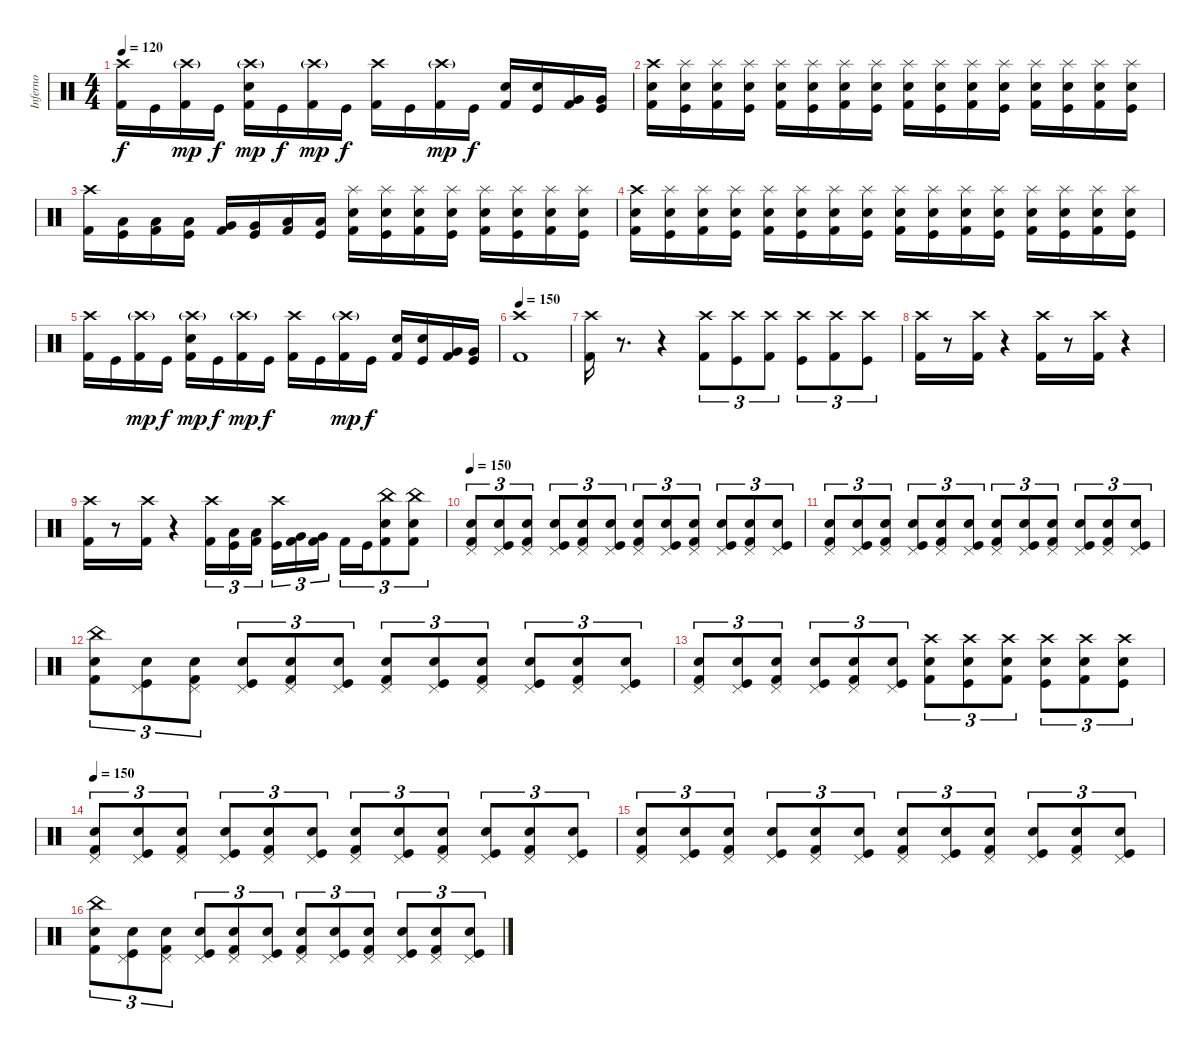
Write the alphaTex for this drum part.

\track ("Inferno" "Inferno") {instrument percussion}
\staff {score}
\articulation defaults
\ts (4 4)
\tempo 120
\clef neutral
\ks c
("Crash high (hit)" "Kick (hit) 2").16{dy f} "Kick (hit)".16 ("Crash high (hit)"{g} "Kick (hit) 2").16{dy mp} "Kick (hit)".16{dy f} ("Crash high (hit)"{g} "Electric Snare (hit)" "Kick (hit) 2").16{dy mp} "Kick (hit)".16{dy f} ("Crash high (hit)"{g} "Kick (hit) 2").16{dy mp} "Kick (hit)".16{dy f} ("Crash high (hit)" "Kick (hit) 2").16 "Kick (hit)".16 ("Crash high (hit)"{g} "Kick (hit) 2").16{dy mp} "Kick (hit)".16{dy f} ("Electric Snare (hit)" "Kick (hit) 2").16 ("Electric Snare (hit)" "Kick (hit)").16 ("Very Low Tom (hit)" "Kick (hit) 2").16 ("Very Low Tom (hit)" "Kick (hit)").16 |
("Crash high (hit)" "Electric Snare (hit)" "Kick (hit) 2").16 ("Splash (hit)" "Electric Snare (hit)" "Kick (hit)").16 ("Splash (hit)" "Electric Snare (hit)" "Kick (hit) 2").16 ("Splash (hit)" "Electric Snare (hit)" "Kick (hit)").16 ("Splash (hit)" "Electric Snare (hit)" "Kick (hit) 2").16 ("Splash (hit)" "Electric Snare (hit)" "Kick (hit)").16 ("Splash (hit)" "Electric Snare (hit)" "Kick (hit) 2").16 ("Splash (hit)" "Electric Snare (hit)" "Kick (hit)").16 ("Splash (hit)" "Electric Snare (hit)" "Kick (hit) 2").16 ("Splash (hit)" "Electric Snare (hit)" "Kick (hit)").16 ("Splash (hit)" "Electric Snare (hit)" "Kick (hit) 2").16 ("Splash (hit)" "Electric Snare (hit)" "Kick (hit)").16 ("Splash (hit)" "Electric Snare (hit)" "Kick (hit) 2").16 ("Splash (hit)" "Electric Snare (hit)" "Kick (hit)").16 ("Splash (hit)" "Electric Snare (hit)" "Kick (hit) 2").16 ("Splash (hit)" "Electric Snare (hit)" "Kick (hit)").16 |
("Crash high (hit)" "Kick (hit) 2").16 ("Low Tom (hit)" "Kick (hit)").16 ("Low Tom (hit)" "Kick (hit) 2").16 ("Low Tom (hit)" "Kick (hit)").16 ("Very Low Tom (hit)" "Kick (hit) 2").16 ("Very Low Tom (hit)" "Kick (hit)").16 ("Low Floor Tom (hit)" "Kick (hit) 2").16 ("Low Floor Tom (hit)" "Kick (hit)").16 ("Splash (hit)" "Electric Snare (hit)" "Kick (hit) 2").16 ("Splash (hit)" "Electric Snare (hit)" "Kick (hit)").16 ("Splash (hit)" "Electric Snare (hit)" "Kick (hit) 2").16 ("Splash (hit)" "Electric Snare (hit)" "Kick (hit)").16 ("Splash (hit)" "Electric Snare (hit)" "Kick (hit) 2").16 ("Splash (hit)" "Electric Snare (hit)" "Kick (hit)").16 ("Splash (hit)" "Electric Snare (hit)" "Kick (hit) 2").16 ("Splash (hit)" "Electric Snare (hit)" "Kick (hit)").16 |
("Crash high (hit)" "Electric Snare (hit)" "Kick (hit) 2").16 ("Splash (hit)" "Electric Snare (hit)" "Kick (hit)").16 ("Splash (hit)" "Electric Snare (hit)" "Kick (hit) 2").16 ("Splash (hit)" "Electric Snare (hit)" "Kick (hit)").16 ("Splash (hit)" "Electric Snare (hit)" "Kick (hit) 2").16 ("Splash (hit)" "Electric Snare (hit)" "Kick (hit)").16 ("Splash (hit)" "Electric Snare (hit)" "Kick (hit) 2").16 ("Splash (hit)" "Electric Snare (hit)" "Kick (hit)").16 ("Splash (hit)" "Electric Snare (hit)" "Kick (hit) 2").16 ("Splash (hit)" "Electric Snare (hit)" "Kick (hit)").16 ("Splash (hit)" "Electric Snare (hit)" "Kick (hit) 2").16 ("Splash (hit)" "Electric Snare (hit)" "Kick (hit)").16 ("Splash (hit)" "Electric Snare (hit)" "Kick (hit) 2").16 ("Splash (hit)" "Electric Snare (hit)" "Kick (hit)").16 ("Splash (hit)" "Electric Snare (hit)" "Kick (hit) 2").16 ("Splash (hit)" "Electric Snare (hit)" "Kick (hit)").16 |
("Crash high (hit)" "Kick (hit) 2").16 "Kick (hit)".16 ("Crash high (hit)"{g} "Kick (hit) 2").16{dy mp} "Kick (hit)".16{dy f} ("Crash high (hit)"{g} "Electric Snare (hit)" "Kick (hit) 2").16{dy mp} "Kick (hit)".16{dy f} ("Crash high (hit)"{g} "Kick (hit) 2").16{dy mp} "Kick (hit)".16{dy f} ("Crash high (hit)" "Kick (hit) 2").16 "Kick (hit)".16 ("Crash high (hit)"{g} "Kick (hit) 2").16{dy mp} "Kick (hit)".16{dy f} ("Electric Snare (hit)" "Kick (hit) 2").16 ("Electric Snare (hit)" "Kick (hit)").16 ("Very Low Tom (hit)" "Kick (hit) 2").16 ("Very Low Tom (hit)" "Kick (hit)").16 |
\tempo 150
("Crash high (hit)" "Kick (hit) 2").1 |
("Crash high (hit)" "Kick (hit) 2").16 r.8{d} r.4 ("Crash high (hit)" "Kick (hit) 2").8{tu (3 2)} ("Crash high (hit)" "Kick (hit)").8{tu (3 2)} ("Crash high (hit)" "Kick (hit) 2").8{tu (3 2)} ("Crash high (hit)" "Kick (hit)").8{tu (3 2)} ("Crash high (hit)" "Kick (hit) 2").8{tu (3 2)} ("Crash high (hit)" "Kick (hit)").8{tu (3 2)} |
("Crash high (hit)" "Kick (hit) 2").16 r.8 ("Crash high (hit)" "Kick (hit) 2").16 r.4 ("Crash high (hit)" "Kick (hit) 2").16 r.8 ("Crash high (hit)" "Kick (hit) 2").16 r.4 |
("Crash high (hit)" "Kick (hit) 2").16 r.8 ("Crash high (hit)" "Kick (hit) 2").16 r.4 ("Crash high (hit)" "Kick (hit) 2").16{tu (3 2)} ("Low Tom (hit)" "Kick (hit)").16{tu (3 2)} ("Low Tom (hit)" "Kick (hit) 2").16{tu (3 2)} ("Crash high (hit)" "Kick (hit)").16{tu (3 2)} ("Very Low Tom (hit)" "Kick (hit) 2").16{tu (3 2)} ("Very Low Tom (hit)" "Kick (hit) 2").16{tu (3 2)} "Kick (hit) 2".16{tu (3 2)} "Kick (hit)".16{tu (3 2)} ("China (hit)" "Electric Snare (hit)" "Kick (hit) 2").8{tu (3 2)} ("China (hit)" "Electric Snare (hit)" "Kick (hit) 2").8{tu (3 2)} |
\tempo 150
("Pedal Hi-Hat (hit)" "Electric Snare (hit)" "Kick (hit) 2").8{tu (3 2)} ("Pedal Hi-Hat (hit)" "Electric Snare (hit)" "Kick (hit)").8{tu (3 2)} ("Pedal Hi-Hat (hit)" "Electric Snare (hit)" "Kick (hit) 2").8{tu (3 2)} ("Pedal Hi-Hat (hit)" "Electric Snare (hit)" "Kick (hit)").8{tu (3 2)} ("Pedal Hi-Hat (hit)" "Electric Snare (hit)" "Kick (hit) 2").8{tu (3 2)} ("Pedal Hi-Hat (hit)" "Electric Snare (hit)" "Kick (hit)").8{tu (3 2)} ("Pedal Hi-Hat (hit)" "Electric Snare (hit)" "Kick (hit) 2").8{tu (3 2)} ("Pedal Hi-Hat (hit)" "Electric Snare (hit)" "Kick (hit)").8{tu (3 2)} ("Pedal Hi-Hat (hit)" "Electric Snare (hit)" "Kick (hit) 2").8{tu (3 2)} ("Pedal Hi-Hat (hit)" "Electric Snare (hit)" "Kick (hit)").8{tu (3 2)} ("Pedal Hi-Hat (hit)" "Electric Snare (hit)" "Kick (hit) 2").8{tu (3 2)} ("Pedal Hi-Hat (hit)" "Electric Snare (hit)" "Kick (hit)").8{tu (3 2)} |
("Pedal Hi-Hat (hit)" "Electric Snare (hit)" "Kick (hit) 2").8{tu (3 2)} ("Pedal Hi-Hat (hit)" "Electric Snare (hit)" "Kick (hit)").8{tu (3 2)} ("Pedal Hi-Hat (hit)" "Electric Snare (hit)" "Kick (hit) 2").8{tu (3 2)} ("Pedal Hi-Hat (hit)" "Electric Snare (hit)" "Kick (hit)").8{tu (3 2)} ("Pedal Hi-Hat (hit)" "Electric Snare (hit)" "Kick (hit) 2").8{tu (3 2)} ("Pedal Hi-Hat (hit)" "Electric Snare (hit)" "Kick (hit)").8{tu (3 2)} ("Pedal Hi-Hat (hit)" "Electric Snare (hit)" "Kick (hit) 2").8{tu (3 2)} ("Pedal Hi-Hat (hit)" "Electric Snare (hit)" "Kick (hit)").8{tu (3 2)} ("Pedal Hi-Hat (hit)" "Electric Snare (hit)" "Kick (hit) 2").8{tu (3 2)} ("Pedal Hi-Hat (hit)" "Electric Snare (hit)" "Kick (hit)").8{tu (3 2)} ("Pedal Hi-Hat (hit)" "Electric Snare (hit)" "Kick (hit) 2").8{tu (3 2)} ("Pedal Hi-Hat (hit)" "Electric Snare (hit)" "Kick (hit)").8{tu (3 2)} |
("China (hit)" "Electric Snare (hit)" "Kick (hit) 2").8{tu (3 2)} ("Pedal Hi-Hat (hit)" "Electric Snare (hit)" "Kick (hit)").8{tu (3 2)} ("Pedal Hi-Hat (hit)" "Electric Snare (hit)" "Kick (hit) 2").8{tu (3 2)} ("Pedal Hi-Hat (hit)" "Electric Snare (hit)" "Kick (hit)").8{tu (3 2)} ("Pedal Hi-Hat (hit)" "Electric Snare (hit)" "Kick (hit) 2").8{tu (3 2)} ("Pedal Hi-Hat (hit)" "Electric Snare (hit)" "Kick (hit)").8{tu (3 2)} ("Pedal Hi-Hat (hit)" "Electric Snare (hit)" "Kick (hit) 2").8{tu (3 2)} ("Pedal Hi-Hat (hit)" "Electric Snare (hit)" "Kick (hit)").8{tu (3 2)} ("Pedal Hi-Hat (hit)" "Electric Snare (hit)" "Kick (hit) 2").8{tu (3 2)} ("Pedal Hi-Hat (hit)" "Electric Snare (hit)" "Kick (hit)").8{tu (3 2)} ("Pedal Hi-Hat (hit)" "Electric Snare (hit)" "Kick (hit) 2").8{tu (3 2)} ("Pedal Hi-Hat (hit)" "Electric Snare (hit)" "Kick (hit)").8{tu (3 2)} |
("Pedal Hi-Hat (hit)" "Electric Snare (hit)" "Kick (hit) 2").8{tu (3 2)} ("Pedal Hi-Hat (hit)" "Electric Snare (hit)" "Kick (hit)").8{tu (3 2)} ("Pedal Hi-Hat (hit)" "Electric Snare (hit)" "Kick (hit) 2").8{tu (3 2)} ("Pedal Hi-Hat (hit)" "Electric Snare (hit)" "Kick (hit)").8{tu (3 2)} ("Pedal Hi-Hat (hit)" "Electric Snare (hit)" "Kick (hit) 2").8{tu (3 2)} ("Pedal Hi-Hat (hit)" "Electric Snare (hit)" "Kick (hit)").8{tu (3 2)} ("Crash high (hit)" "Electric Snare (hit)" "Kick (hit) 2").8{tu (3 2)} ("Crash high (hit)" "Electric Snare (hit)" "Kick (hit)").8{tu (3 2)} ("Crash high (hit)" "Electric Snare (hit)" "Kick (hit) 2").8{tu (3 2)} ("Crash high (hit)" "Electric Snare (hit)" "Kick (hit)").8{tu (3 2)} ("Crash high (hit)" "Electric Snare (hit)" "Kick (hit) 2").8{tu (3 2)} ("Crash high (hit)" "Electric Snare (hit)" "Kick (hit)").8{tu (3 2)} |
\tempo 150
("Pedal Hi-Hat (hit)" "Electric Snare (hit)" "Kick (hit) 2").8{tu (3 2)} ("Pedal Hi-Hat (hit)" "Electric Snare (hit)" "Kick (hit)").8{tu (3 2)} ("Pedal Hi-Hat (hit)" "Electric Snare (hit)" "Kick (hit) 2").8{tu (3 2)} ("Pedal Hi-Hat (hit)" "Electric Snare (hit)" "Kick (hit)").8{tu (3 2)} ("Pedal Hi-Hat (hit)" "Electric Snare (hit)" "Kick (hit) 2").8{tu (3 2)} ("Pedal Hi-Hat (hit)" "Electric Snare (hit)" "Kick (hit)").8{tu (3 2)} ("Pedal Hi-Hat (hit)" "Electric Snare (hit)" "Kick (hit) 2").8{tu (3 2)} ("Pedal Hi-Hat (hit)" "Electric Snare (hit)" "Kick (hit)").8{tu (3 2)} ("Pedal Hi-Hat (hit)" "Electric Snare (hit)" "Kick (hit) 2").8{tu (3 2)} ("Pedal Hi-Hat (hit)" "Electric Snare (hit)" "Kick (hit)").8{tu (3 2)} ("Pedal Hi-Hat (hit)" "Electric Snare (hit)" "Kick (hit) 2").8{tu (3 2)} ("Pedal Hi-Hat (hit)" "Electric Snare (hit)" "Kick (hit)").8{tu (3 2)} |
("Pedal Hi-Hat (hit)" "Electric Snare (hit)" "Kick (hit) 2").8{tu (3 2)} ("Pedal Hi-Hat (hit)" "Electric Snare (hit)" "Kick (hit)").8{tu (3 2)} ("Pedal Hi-Hat (hit)" "Electric Snare (hit)" "Kick (hit) 2").8{tu (3 2)} ("Pedal Hi-Hat (hit)" "Electric Snare (hit)" "Kick (hit)").8{tu (3 2)} ("Pedal Hi-Hat (hit)" "Electric Snare (hit)" "Kick (hit) 2").8{tu (3 2)} ("Pedal Hi-Hat (hit)" "Electric Snare (hit)" "Kick (hit)").8{tu (3 2)} ("Pedal Hi-Hat (hit)" "Electric Snare (hit)" "Kick (hit) 2").8{tu (3 2)} ("Pedal Hi-Hat (hit)" "Electric Snare (hit)" "Kick (hit)").8{tu (3 2)} ("Pedal Hi-Hat (hit)" "Electric Snare (hit)" "Kick (hit) 2").8{tu (3 2)} ("Pedal Hi-Hat (hit)" "Electric Snare (hit)" "Kick (hit)").8{tu (3 2)} ("Pedal Hi-Hat (hit)" "Electric Snare (hit)" "Kick (hit) 2").8{tu (3 2)} ("Pedal Hi-Hat (hit)" "Electric Snare (hit)" "Kick (hit)").8{tu (3 2)} |
("China (hit)" "Electric Snare (hit)" "Kick (hit) 2").8{tu (3 2)} ("Pedal Hi-Hat (hit)" "Electric Snare (hit)" "Kick (hit)").8{tu (3 2)} ("Pedal Hi-Hat (hit)" "Electric Snare (hit)" "Kick (hit) 2").8{tu (3 2)} ("Pedal Hi-Hat (hit)" "Electric Snare (hit)" "Kick (hit)").8{tu (3 2)} ("Pedal Hi-Hat (hit)" "Electric Snare (hit)" "Kick (hit) 2").8{tu (3 2)} ("Pedal Hi-Hat (hit)" "Electric Snare (hit)" "Kick (hit)").8{tu (3 2)} ("Pedal Hi-Hat (hit)" "Electric Snare (hit)" "Kick (hit) 2").8{tu (3 2)} ("Pedal Hi-Hat (hit)" "Electric Snare (hit)" "Kick (hit)").8{tu (3 2)} ("Pedal Hi-Hat (hit)" "Electric Snare (hit)" "Kick (hit) 2").8{tu (3 2)} ("Pedal Hi-Hat (hit)" "Electric Snare (hit)" "Kick (hit)").8{tu (3 2)} ("Pedal Hi-Hat (hit)" "Electric Snare (hit)" "Kick (hit) 2").8{tu (3 2)} ("Pedal Hi-Hat (hit)" "Electric Snare (hit)" "Kick (hit)").8{tu (3 2)}
